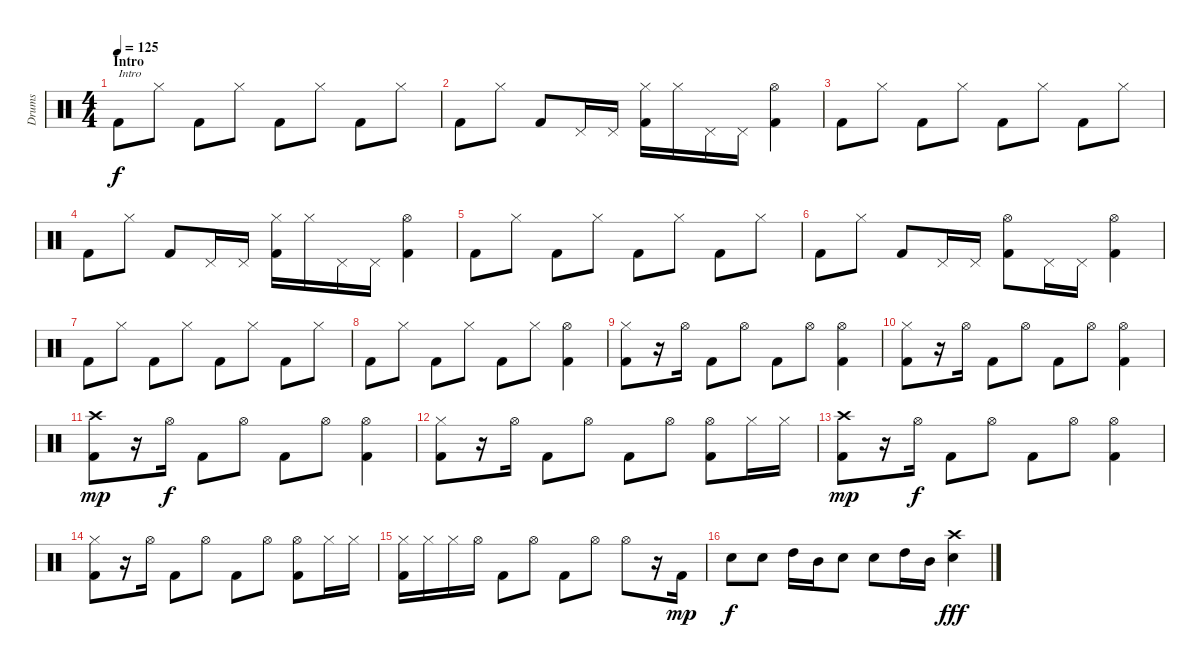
\track ("Drums" "Drums") {instrument percussion}
\staff {score}
\articulation defaults
\ts (4 4)
\section ("" "Intro")
\tempo 125
\clef neutral
\ks c "Kick (hit) 2".8{txt "Intro" dy f volume 14} "Hi-Hat (closed)".8 "Kick (hit) 2".8 "Hi-Hat (closed)".8 "Kick (hit) 2".8 "Hi-Hat (closed)".8 "Kick (hit) 2".8 "Hi-Hat (closed)".8
|
"Kick (hit) 2".8 "Hi-Hat (closed)".8 "Kick (hit) 2".8 "Pedal Hi-Hat (hit)".16 "Pedal Hi-Hat (hit)".16 ("Hi-Hat (closed)" "Kick (hit) 2").16 "Hi-Hat (closed)".16 "Pedal Hi-Hat (hit)".16 "Pedal Hi-Hat (hit)".16 ("Hi-Hat (open)" "Kick (hit) 2").4 |
"Kick (hit) 2".8 "Hi-Hat (closed)".8 "Kick (hit) 2".8 "Hi-Hat (closed)".8 "Kick (hit) 2".8 "Hi-Hat (closed)".8 "Kick (hit) 2".8 "Hi-Hat (closed)".8 |
"Kick (hit) 2".8 "Hi-Hat (closed)".8 "Kick (hit) 2".8 "Pedal Hi-Hat (hit)".16 "Pedal Hi-Hat (hit)".16 ("Hi-Hat (closed)" "Kick (hit) 2").16 "Hi-Hat (closed)".16 "Pedal Hi-Hat (hit)".16 "Pedal Hi-Hat (hit)".16 ("Hi-Hat (open)" "Kick (hit) 2").4 |
"Kick (hit) 2".8 "Hi-Hat (closed)".8 "Kick (hit) 2".8 "Hi-Hat (closed)".8 "Kick (hit) 2".8 "Hi-Hat (closed)".8 "Kick (hit) 2".8 "Hi-Hat (closed)".8 |
"Kick (hit) 2".8 "Hi-Hat (closed)".8 "Kick (hit) 2".8 "Pedal Hi-Hat (hit)".16 "Pedal Hi-Hat (hit)".16 ("Hi-Hat (open)" "Kick (hit) 2").8 "Pedal Hi-Hat (hit)".16 "Pedal Hi-Hat (hit)".16 ("Hi-Hat (open)" "Kick (hit) 2").4 |
"Kick (hit) 2".8 "Hi-Hat (closed)".8 "Kick (hit) 2".8 "Hi-Hat (closed)".8 "Kick (hit) 2".8 "Hi-Hat (closed)".8 "Kick (hit) 2".8 "Hi-Hat (closed)".8 |
"Kick (hit) 2".8 "Hi-Hat (closed)".8 "Kick (hit) 2".8 "Hi-Hat (closed)".8 "Kick (hit) 2".8 "Hi-Hat (closed)".8 ("Hi-Hat (open)" "Kick (hit) 2").4 |
("Hi-Hat (closed)" "Kick (hit) 2").8 r.16 "Hi-Hat (open)".16 "Kick (hit) 2".8 "Hi-Hat (open)".8 "Kick (hit) 2".8 "Hi-Hat (open)".8 ("Hi-Hat (open)" "Kick (hit) 2").4 |
("Hi-Hat (closed)" "Kick (hit) 2").8 r.16 "Hi-Hat (open)".16 "Kick (hit) 2".8 "Hi-Hat (open)".8 "Kick (hit) 2".8 "Hi-Hat (open)".8 ("Hi-Hat (open)" "Kick (hit) 2").4 |
("Crash high (hit)" "Kick (hit) 2").8{dy mp} r.16 "Hi-Hat (open)".16{dy f} "Kick (hit) 2".8 "Hi-Hat (open)".8 "Kick (hit) 2".8 "Hi-Hat (open)".8 ("Hi-Hat (open)" "Kick (hit) 2").4 |
("Hi-Hat (closed)" "Kick (hit) 2").8 r.16 "Hi-Hat (open)".16 "Kick (hit) 2".8 "Hi-Hat (open)".8 "Kick (hit) 2".8 "Hi-Hat (open)".8 ("Hi-Hat (open)" "Kick (hit) 2").8 "Hi-Hat (closed)".16 "Hi-Hat (closed)".16 |
("Crash high (hit)" "Kick (hit) 2").8{dy mp} r.16 "Hi-Hat (open)".16{dy f} "Kick (hit) 2".8 "Hi-Hat (open)".8 "Kick (hit) 2".8 "Hi-Hat (open)".8 ("Hi-Hat (open)" "Kick (hit) 2").4 |
("Hi-Hat (closed)" "Kick (hit) 2").8 r.16 "Hi-Hat (open)".16 "Kick (hit) 2".8 "Hi-Hat (open)".8 "Kick (hit) 2".8 "Hi-Hat (open)".8 ("Hi-Hat (open)" "Kick (hit) 2").8 "Hi-Hat (closed)".16 "Hi-Hat (closed)".16 |
("Hi-Hat (closed)" "Kick (hit) 2").16 "Hi-Hat (closed)".16 "Hi-Hat (closed)".16 "Hi-Hat (open)".16 "Kick (hit) 2".8 "Hi-Hat (open)".8 "Kick (hit) 2".8 "Hi-Hat (open)".8 "Hi-Hat (open)".8 r.16 "Kick (hit) 2".16{dy mp} |
"Electric Snare (hit)".8{dy f} "Electric Snare (hit)".8 "High Tom (hit)".16 "Mid Tom (hit)".16 "Electric Snare (hit)".8 "Electric Snare (hit)".8 "High Tom (hit)".16 "Mid Tom (hit)".16 ("Crash high (hit)" "Electric Snare (hit)").4{dy fff}
